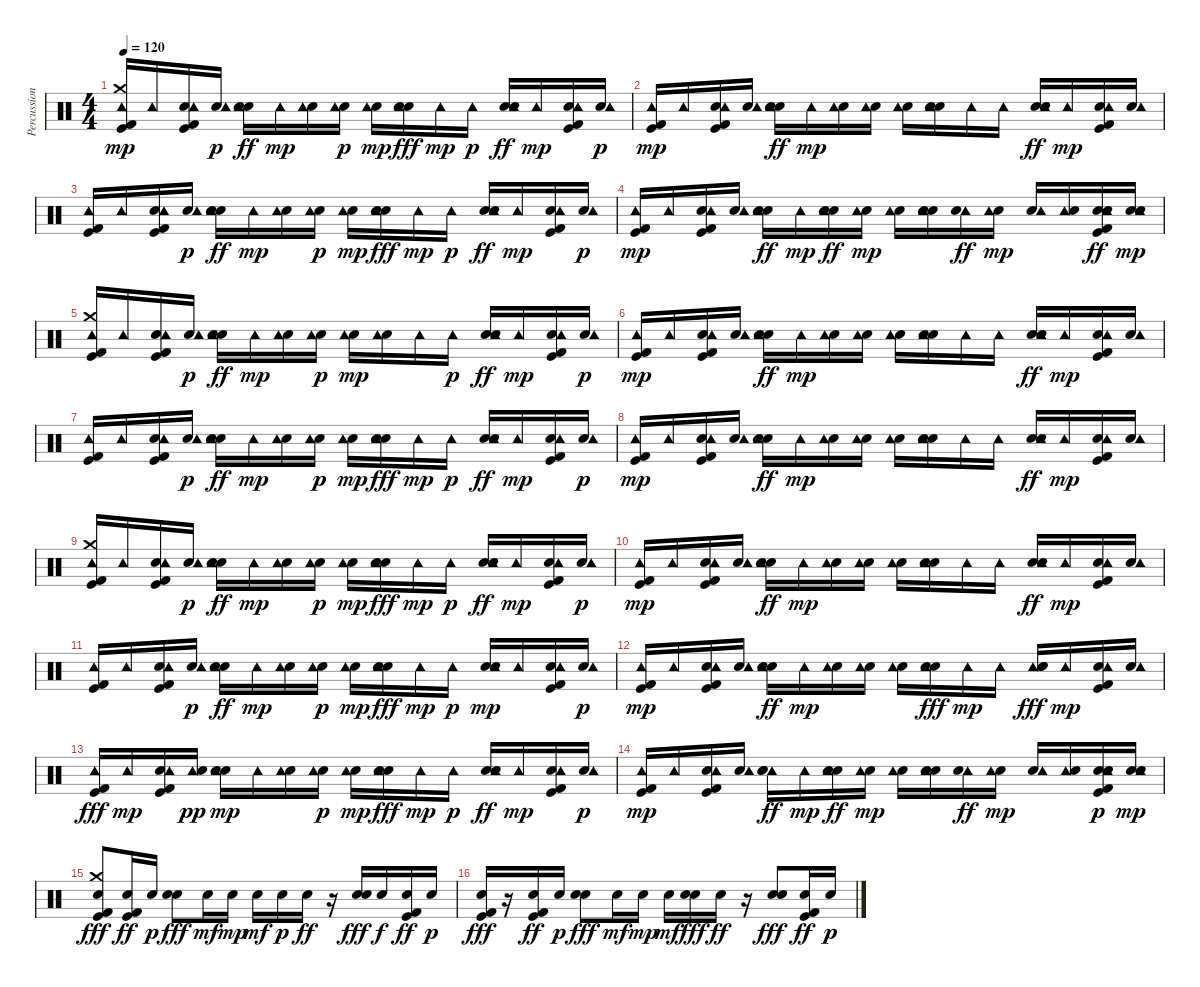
\track ("Percussions" "Percussion") {instrument percussion}
\staff {score}
\articulation defaults
\ts (4 4)
\tempo 120
\clef neutral
\ks c
("Kick (hit) 2" "Kick (hit)" "Crash medium (hit)" "Tambourine (hit)").16{dy mp} "Tambourine (hit)".16 ("Electric Snare (hit)" "Kick (hit) 2" "Kick (hit)" "Tambourine (hit)").16 ("Electric Snare (hit)" "Tambourine (hit)").16{dy p} ("Snare (hit) 2" "Tambourine (hit)" "Electric Snare (hit)").16{dy ff} "Tambourine (hit)".16{dy mp} ("Electric Snare (hit)" "Tambourine (hit)").16 ("Electric Snare (hit)" "Tambourine (hit)").16{dy p} ("Electric Snare (hit)" "Tambourine (hit)").16{dy mp} ("Electric Snare (hit)" "Tambourine (hit)" "Snare (hit) 2").16{dy fff} "Tambourine (hit)".16{dy mp} "Tambourine (hit)".16{dy p} ("Snare (hit) 2" "Tambourine (hit)" "Electric Snare (hit)").16{dy ff} "Tambourine (hit)".16{dy mp} ("Electric Snare (hit)" "Kick (hit) 2" "Kick (hit)" "Tambourine (hit)").16 ("Electric Snare (hit)" "Tambourine (hit)").16{dy p} |
("Kick (hit) 2" "Kick (hit)" "Tambourine (hit)").16{dy mp} "Tambourine (hit)".16 ("Electric Snare (hit)" "Kick (hit) 2" "Kick (hit)" "Tambourine (hit)").16 ("Electric Snare (hit)" "Tambourine (hit)").16 ("Snare (hit) 2" "Tambourine (hit)" "Electric Snare (hit)").16{dy ff} "Tambourine (hit)".16{dy mp} ("Electric Snare (hit)" "Tambourine (hit)").16 ("Electric Snare (hit)" "Tambourine (hit)").16 ("Electric Snare (hit)" "Tambourine (hit)").16 ("Electric Snare (hit)" "Snare (hit) 2" "Tambourine (hit)").16 "Tambourine (hit)".16 "Tambourine (hit)".16 ("Snare (hit) 2" "Tambourine (hit)" "Electric Snare (hit)").16{dy ff} "Tambourine (hit)".16{dy mp} ("Electric Snare (hit)" "Kick (hit) 2" "Kick (hit)" "Tambourine (hit)").16 ("Electric Snare (hit)" "Tambourine (hit)").16 |
("Kick (hit) 2" "Kick (hit)" "Tambourine (hit)").16 "Tambourine (hit)".16 ("Electric Snare (hit)" "Kick (hit) 2" "Kick (hit)" "Tambourine (hit)").16 ("Electric Snare (hit)" "Tambourine (hit)").16{dy p} ("Snare (hit) 2" "Tambourine (hit)" "Electric Snare (hit)").16{dy ff} "Tambourine (hit)".16{dy mp} ("Electric Snare (hit)" "Tambourine (hit)").16 ("Electric Snare (hit)" "Tambourine (hit)").16{dy p} ("Electric Snare (hit)" "Tambourine (hit)").16{dy mp} ("Electric Snare (hit)" "Tambourine (hit)" "Snare (hit) 2").16{dy fff} "Tambourine (hit)".16{dy mp} "Tambourine (hit)".16{dy p} ("Snare (hit) 2" "Tambourine (hit)" "Electric Snare (hit)").16{dy ff} "Tambourine (hit)".16{dy mp} ("Electric Snare (hit)" "Kick (hit) 2" "Kick (hit)" "Tambourine (hit)").16 ("Electric Snare (hit)" "Tambourine (hit)").16{dy p} |
("Kick (hit) 2" "Kick (hit)" "Tambourine (hit)").16{dy mp} "Tambourine (hit)".16 ("Electric Snare (hit)" "Kick (hit) 2" "Kick (hit)" "Tambourine (hit)").16 ("Electric Snare (hit)" "Tambourine (hit)").16 ("Snare (hit) 2" "Tambourine (hit)" "Electric Snare (hit)").16{dy ff} "Tambourine (hit)".16{dy mp} ("Electric Snare (hit)" "Tambourine (hit)" "Snare (hit) 2").16{dy ff} ("Electric Snare (hit)" "Tambourine (hit)").16{dy mp} ("Electric Snare (hit)" "Tambourine (hit)").16 ("Electric Snare (hit)" "Snare (hit) 2" "Tambourine (hit)").16 ("Tambourine (hit)" "Snare (hit) 2").16{dy ff} ("Snare (hit) 2" "Tambourine (hit)").16{dy mp} ("Snare (hit) 2" "Tambourine (hit)").16 ("Tambourine (hit)" "Snare (hit) 2").16 ("Electric Snare (hit)" "Kick (hit) 2" "Kick (hit)" "Tambourine (hit)" "Snare (hit) 2").16{dy ff} ("Snare (hit) 2" "Electric Snare (hit)" "Tambourine (hit)").16{dy mp} |
("Kick (hit) 2" "Kick (hit)" "Crash medium (hit)" "Tambourine (hit)").16 "Tambourine (hit)".16 ("Electric Snare (hit)" "Kick (hit) 2" "Kick (hit)" "Tambourine (hit)").16 ("Electric Snare (hit)" "Tambourine (hit)").16{dy p} ("Snare (hit) 2" "Tambourine (hit)" "Electric Snare (hit)").16{dy ff} "Tambourine (hit)".16{dy mp} ("Electric Snare (hit)" "Tambourine (hit)").16 ("Electric Snare (hit)" "Tambourine (hit)").16{dy p} ("Electric Snare (hit)" "Tambourine (hit)").16{dy mp} ("Electric Snare (hit)" "Tambourine (hit)").16 "Tambourine (hit)".16 "Tambourine (hit)".16{dy p} ("Snare (hit) 2" "Tambourine (hit)" "Electric Snare (hit)").16{dy ff} "Tambourine (hit)".16{dy mp} ("Electric Snare (hit)" "Kick (hit) 2" "Kick (hit)" "Tambourine (hit)").16 ("Electric Snare (hit)" "Tambourine (hit)").16{dy p} |
("Kick (hit) 2" "Kick (hit)" "Tambourine (hit)").16{dy mp} "Tambourine (hit)".16 ("Electric Snare (hit)" "Kick (hit) 2" "Kick (hit)" "Tambourine (hit)").16 ("Electric Snare (hit)" "Tambourine (hit)").16 ("Snare (hit) 2" "Tambourine (hit)" "Electric Snare (hit)").16{dy ff} "Tambourine (hit)".16{dy mp} ("Electric Snare (hit)" "Tambourine (hit)").16 ("Electric Snare (hit)" "Tambourine (hit)").16 ("Electric Snare (hit)" "Tambourine (hit)").16 ("Electric Snare (hit)" "Snare (hit) 2" "Tambourine (hit)").16 "Tambourine (hit)".16 "Tambourine (hit)".16 ("Snare (hit) 2" "Tambourine (hit)" "Electric Snare (hit)").16{dy ff} "Tambourine (hit)".16{dy mp} ("Electric Snare (hit)" "Kick (hit) 2" "Kick (hit)" "Tambourine (hit)").16 ("Electric Snare (hit)" "Tambourine (hit)").16 |
("Kick (hit) 2" "Kick (hit)" "Tambourine (hit)").16 "Tambourine (hit)".16 ("Electric Snare (hit)" "Kick (hit) 2" "Kick (hit)" "Tambourine (hit)").16 ("Electric Snare (hit)" "Tambourine (hit)").16{dy p} ("Snare (hit) 2" "Tambourine (hit)" "Electric Snare (hit)").16{dy ff} "Tambourine (hit)".16{dy mp} ("Electric Snare (hit)" "Tambourine (hit)").16 ("Electric Snare (hit)" "Tambourine (hit)").16{dy p} ("Electric Snare (hit)" "Tambourine (hit)").16{dy mp} ("Electric Snare (hit)" "Tambourine (hit)" "Snare (hit) 2").16{dy fff} "Tambourine (hit)".16{dy mp} "Tambourine (hit)".16{dy p} ("Snare (hit) 2" "Tambourine (hit)" "Electric Snare (hit)").16{dy ff} "Tambourine (hit)".16{dy mp} ("Electric Snare (hit)" "Kick (hit) 2" "Kick (hit)" "Tambourine (hit)").16 ("Electric Snare (hit)" "Tambourine (hit)").16{dy p} |
("Kick (hit) 2" "Kick (hit)" "Tambourine (hit)").16{dy mp} "Tambourine (hit)".16 ("Electric Snare (hit)" "Kick (hit) 2" "Kick (hit)" "Tambourine (hit)").16 ("Electric Snare (hit)" "Tambourine (hit)").16 ("Snare (hit) 2" "Tambourine (hit)" "Electric Snare (hit)").16{dy ff} "Tambourine (hit)".16{dy mp} ("Electric Snare (hit)" "Tambourine (hit)").16 ("Electric Snare (hit)" "Tambourine (hit)").16 ("Electric Snare (hit)" "Tambourine (hit)").16 ("Electric Snare (hit)" "Snare (hit) 2" "Tambourine (hit)").16 "Tambourine (hit)".16 "Tambourine (hit)".16 ("Snare (hit) 2" "Tambourine (hit)" "Electric Snare (hit)").16{dy ff} "Tambourine (hit)".16{dy mp} ("Electric Snare (hit)" "Kick (hit) 2" "Kick (hit)" "Tambourine (hit)").16 ("Electric Snare (hit)" "Tambourine (hit)").16 |
("Kick (hit) 2" "Kick (hit)" "Crash medium (hit)" "Tambourine (hit)").16 "Tambourine (hit)".16 ("Electric Snare (hit)" "Kick (hit) 2" "Kick (hit)" "Tambourine (hit)").16 ("Electric Snare (hit)" "Tambourine (hit)").16{dy p} ("Snare (hit) 2" "Tambourine (hit)" "Electric Snare (hit)").16{dy ff} "Tambourine (hit)".16{dy mp} ("Electric Snare (hit)" "Tambourine (hit)").16 ("Electric Snare (hit)" "Tambourine (hit)").16{dy p} ("Electric Snare (hit)" "Tambourine (hit)").16{dy mp} ("Electric Snare (hit)" "Tambourine (hit)" "Snare (hit) 2").16{dy fff} "Tambourine (hit)".16{dy mp} "Tambourine (hit)".16{dy p} ("Snare (hit) 2" "Tambourine (hit)" "Electric Snare (hit)").16{dy ff} "Tambourine (hit)".16{dy mp} ("Electric Snare (hit)" "Kick (hit) 2" "Kick (hit)" "Tambourine (hit)").16 ("Electric Snare (hit)" "Tambourine (hit)").16{dy p} |
("Kick (hit) 2" "Kick (hit)" "Tambourine (hit)").16{dy mp} "Tambourine (hit)".16 ("Electric Snare (hit)" "Kick (hit) 2" "Kick (hit)" "Tambourine (hit)").16 ("Electric Snare (hit)" "Tambourine (hit)").16 ("Snare (hit) 2" "Tambourine (hit)" "Electric Snare (hit)").16{dy ff} "Tambourine (hit)".16{dy mp} ("Electric Snare (hit)" "Tambourine (hit)").16 ("Electric Snare (hit)" "Tambourine (hit)").16 ("Electric Snare (hit)" "Tambourine (hit)").16 ("Electric Snare (hit)" "Snare (hit) 2" "Tambourine (hit)").16 "Tambourine (hit)".16 "Tambourine (hit)".16 ("Snare (hit) 2" "Tambourine (hit)" "Electric Snare (hit)").16{dy ff} "Tambourine (hit)".16{dy mp} ("Electric Snare (hit)" "Kick (hit) 2" "Kick (hit)" "Tambourine (hit)").16 ("Electric Snare (hit)" "Tambourine (hit)").16 |
("Kick (hit) 2" "Kick (hit)" "Tambourine (hit)").16 "Tambourine (hit)".16 ("Electric Snare (hit)" "Kick (hit) 2" "Kick (hit)" "Tambourine (hit)").16 ("Electric Snare (hit)" "Tambourine (hit)").16{dy p} ("Snare (hit) 2" "Tambourine (hit)" "Electric Snare (hit)").16{dy ff} "Tambourine (hit)".16{dy mp} ("Electric Snare (hit)" "Tambourine (hit)").16 ("Electric Snare (hit)" "Tambourine (hit)").16{dy p} ("Electric Snare (hit)" "Tambourine (hit)").16{dy mp} ("Electric Snare (hit)" "Tambourine (hit)" "Snare (hit) 2").16{dy fff} "Tambourine (hit)".16{dy mp} "Tambourine (hit)".16{dy p} ("Snare (hit) 2" "Electric Snare (hit)" "Tambourine (hit)").16{dy mp} "Tambourine (hit)".16 ("Electric Snare (hit)" "Kick (hit)" "Kick (hit) 2" "Tambourine (hit)").16 ("Electric Snare (hit)" "Tambourine (hit)").16{dy p} |
("Kick (hit) 2" "Kick (hit)" "Tambourine (hit)").16{dy mp} "Tambourine (hit)".16 ("Electric Snare (hit)" "Kick (hit) 2" "Kick (hit)" "Tambourine (hit)").16 ("Electric Snare (hit)" "Tambourine (hit)").16 ("Snare (hit) 2" "Tambourine (hit)" "Electric Snare (hit)").16{dy ff} "Tambourine (hit)".16{dy mp} ("Electric Snare (hit)" "Tambourine (hit)").16 ("Electric Snare (hit)" "Tambourine (hit)").16 ("Electric Snare (hit)" "Tambourine (hit)").16 ("Electric Snare (hit)" "Tambourine (hit)" "Snare (hit) 2").16{dy fff} "Tambourine (hit)".16{dy mp} "Tambourine (hit)".16 ("Tambourine (hit)" "Electric Snare (hit)" "Snare (hit) 2").16{dy fff} "Tambourine (hit)".16{dy mp} ("Kick (hit)" "Electric Snare (hit)" "Kick (hit) 2" "Tambourine (hit)").16 ("Electric Snare (hit)" "Tambourine (hit)").16 |
("Tambourine (hit)" "Kick (hit) 2" "Kick (hit)").16{dy fff} "Tambourine (hit)".16{dy mp} ("Kick (hit)" "Electric Snare (hit)" "Kick (hit) 2" "Tambourine (hit)").16 ("Tambourine (hit)" "Electric Snare (hit)").16{dy pp} ("Electric Snare (hit)" "Snare (hit) 2" "Tambourine (hit)").16{dy mp} "Tambourine (hit)".16 ("Electric Snare (hit)" "Tambourine (hit)").16 ("Electric Snare (hit)" "Tambourine (hit)").16{dy p} ("Electric Snare (hit)" "Tambourine (hit)").16{dy mp} ("Electric Snare (hit)" "Tambourine (hit)" "Snare (hit) 2").16{dy fff} "Tambourine (hit)".16{dy mp} "Tambourine (hit)".16{dy p} ("Snare (hit) 2" "Tambourine (hit)" "Electric Snare (hit)").16{dy ff} "Tambourine (hit)".16{dy mp} ("Electric Snare (hit)" "Kick (hit) 2" "Kick (hit)" "Tambourine (hit)").16 ("Electric Snare (hit)" "Tambourine (hit)").16{dy p} |
("Kick (hit) 2" "Kick (hit)" "Tambourine (hit)").16{dy mp} "Tambourine (hit)".16 ("Electric Snare (hit)" "Kick (hit) 2" "Kick (hit)" "Tambourine (hit)").16 ("Electric Snare (hit)" "Tambourine (hit)").16 ("Tambourine (hit)" "Snare (hit) 2" "Electric Snare (hit)").16{dy ff} "Tambourine (hit)".16{dy mp} ("Electric Snare (hit)" "Tambourine (hit)" "Snare (hit) 2").16{dy ff} ("Electric Snare (hit)" "Tambourine (hit)").16{dy mp} ("Electric Snare (hit)" "Tambourine (hit)").16 ("Electric Snare (hit)" "Snare (hit) 2" "Tambourine (hit)").16 ("Tambourine (hit)" "Snare (hit) 2").16{dy ff} ("Snare (hit) 2" "Tambourine (hit)").16{dy mp} ("Snare (hit) 2" "Tambourine (hit)").16 ("Tambourine (hit)" "Snare (hit) 2").16 ("Snare (hit) 2" "Kick (hit) 2" "Kick (hit)" "Tambourine (hit)" "Electric Snare (hit)").16{dy p} ("Snare (hit) 2" "Electric Snare (hit)" "Tambourine (hit)").16{dy mp} |
("Electric Snare (hit)" "Kick (hit) 2" "Kick (hit)" "Crash medium (hit)").8{dy fff volume 14} ("Electric Snare (hit)" "Kick (hit) 2" "Kick (hit)").16{dy ff} "Electric Snare (hit)".16{dy p} ("Snare (hit) 2" "Electric Snare (hit)").8{dy fff} "Electric Snare (hit)".16{dy mf} "Electric Snare (hit)".16{dy mp} "Electric Snare (hit)".16{dy mf} "Electric Snare (hit)".16{dy p} "Electric Snare (hit)".16{dy ff} r.16 ("Snare (hit) 2" "Electric Snare (hit)").16{dy fff} "Electric Snare (hit)".16{dy f} ("Electric Snare (hit)" "Kick (hit) 2" "Kick (hit)").16{dy ff} "Electric Snare (hit)".16{dy p} |
("Electric Snare (hit)" "Kick (hit) 2" "Kick (hit)").16{dy fff} r.16 ("Electric Snare (hit)" "Kick (hit) 2" "Kick (hit)").16{dy ff} "Electric Snare (hit)".16{dy p} ("Snare (hit) 2" "Electric Snare (hit)").8{dy fff} "Electric Snare (hit)".16{dy mf} "Electric Snare (hit)".16{dy mp} "Electric Snare (hit)".16{dy mf} ("Electric Snare (hit)" "Snare (hit) 2").16{dy fff} "Electric Snare (hit)".16{dy ff} r.16 ("Electric Snare (hit)" "Snare (hit) 2").8{dy fff} ("Electric Snare (hit)" "Kick (hit) 2" "Kick (hit)").16{dy ff} "Electric Snare (hit)".16{dy p}
